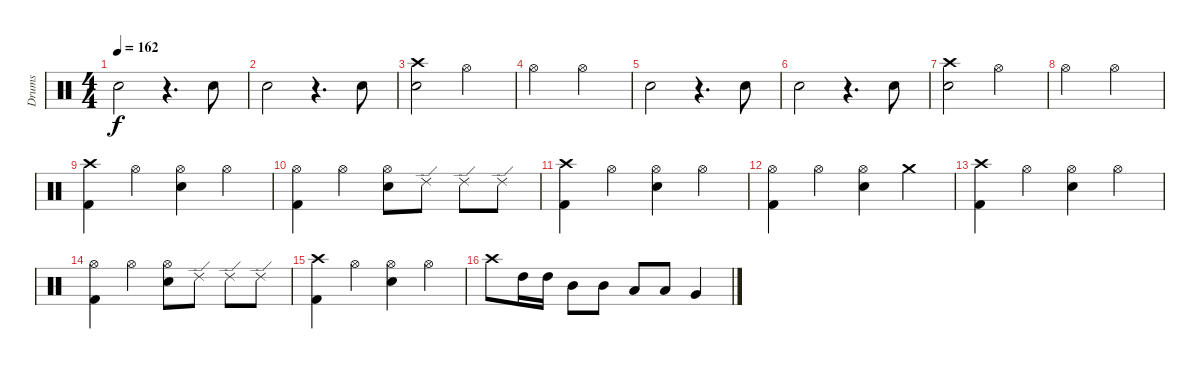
\track ("Drums" "Drums") {instrument percussion}
\staff {score}
\articulation defaults
\ts (4 4)
\tempo 162
\clef neutral
\ks c "Snare (hit) 2".2{dy f}
r.4{d} "Snare (hit) 2".8 |
"Snare (hit) 2".2 r.4{d} "Snare (hit) 2".8 |
("Crash high (hit)" "Snare (hit) 2").2 "Hi-Hat (open)".2 |
"Hi-Hat (open)".2 "Hi-Hat (open)".2 |
"Snare (hit) 2".2 r.4{d} "Snare (hit) 2".8 |
"Snare (hit) 2".2 r.4{d} "Snare (hit) 2".8 |
("Crash high (hit)" "Snare (hit) 2").2 "Hi-Hat (open)".2 |
"Hi-Hat (open)".2 "Hi-Hat (open)".2 |
("Crash high (hit)" "Kick (hit) 2").4 "Hi-Hat (open)".4 ("Hi-Hat (open)" "Snare (hit) 2").4 "Hi-Hat (open)".4 |
("Hi-Hat (open)" "Kick (hit) 2").4 "Hi-Hat (open)".4 ("Hi-Hat (open)" "Snare (hit) 2").8 "Ride (edge) 2".8 "Ride (edge) 2".8 "Ride (edge) 2".8 |
("Crash high (hit)" "Kick (hit) 2").4 "Hi-Hat (open)".4 ("Hi-Hat (open)" "Snare (hit) 2").4 "Hi-Hat (open)".4 |
("Hi-Hat (open)" "Kick (hit) 2").4 "Hi-Hat (open)".4 ("Hi-Hat (open)" "Snare (hit) 2").4 "Crash medium (hit)".4 |
("Crash high (hit)" "Kick (hit) 2").4 "Hi-Hat (open)".4 ("Hi-Hat (open)" "Snare (hit) 2").4 "Hi-Hat (open)".4 |
("Hi-Hat (open)" "Kick (hit) 2").4 "Hi-Hat (open)".4 ("Hi-Hat (open)" "Snare (hit) 2").8 "Ride (edge) 2".8 "Ride (edge) 2".8 "Ride (edge) 2".8 |
("Crash high (hit)" "Kick (hit) 2").4 "Hi-Hat (open)".4 ("Hi-Hat (open)" "Snare (hit) 2").4 "Hi-Hat (open)".4 |
"Crash high (hit)".8 "High Tom (hit)".16 "High Tom (hit)".16 "Mid Tom (hit)".8 "Mid Tom (hit)".8 "Low Tom (hit)".8 "Low Tom (hit)".8 "Very Low Tom (hit)".4
